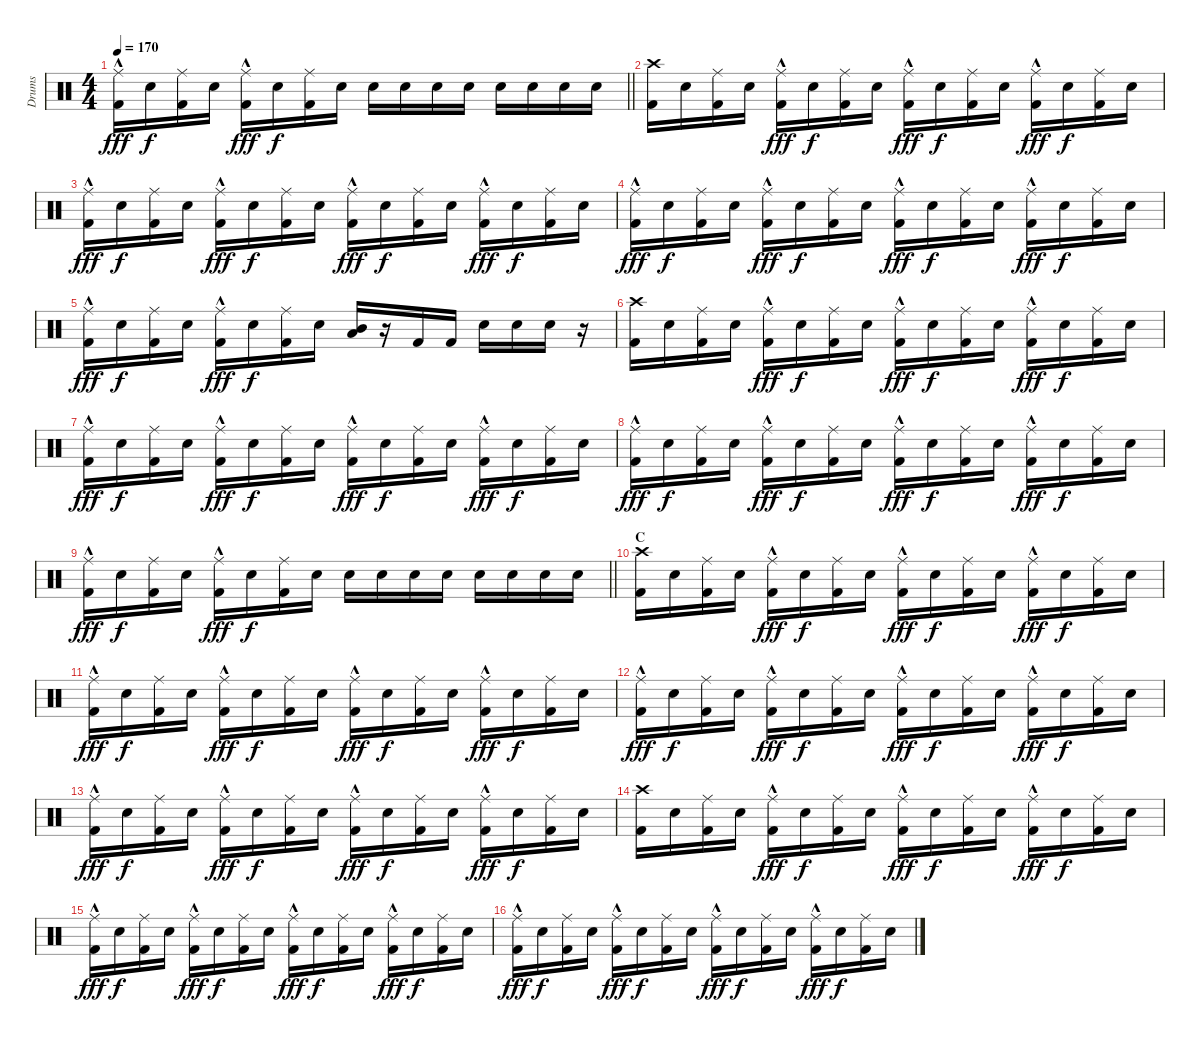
\track ("Drums" "Drums") {instrument percussion}
\staff {score}
\articulation defaults
\ts (4 4)
\tempo 170
\clef neutral
\barLineRight lightlight
\ks c
("Ride (middle)"{hac} "Kick (hit) 2").16{dy fff} "Snare (hit) 2".16{dy f} ("Ride (middle)" "Kick (hit) 2").16 "Snare (hit) 2".16 ("Ride (middle)"{hac} "Kick (hit) 2").16{dy fff} "Snare (hit) 2".16{dy f} ("Ride (middle)" "Kick (hit) 2").16 "Snare (hit) 2".16 "Snare (hit) 2".16 "Snare (hit) 2".16 "Snare (hit) 2".16 "Snare (hit) 2".16 "Snare (hit) 2".16 "Snare (hit) 2".16 "Snare (hit) 2".16 "Snare (hit) 2".16 |
("Crash high (hit)" "Kick (hit) 2").16 "Snare (hit) 2".16 ("Ride (middle)" "Kick (hit) 2").16 "Snare (hit) 2".16 ("Ride (middle)"{hac} "Kick (hit) 2").16{dy fff} "Snare (hit) 2".16{dy f} ("Ride (middle)" "Kick (hit) 2").16 "Snare (hit) 2".16 ("Ride (middle)"{hac} "Kick (hit) 2").16{dy fff} "Snare (hit) 2".16{dy f} ("Ride (middle)" "Kick (hit) 2").16 "Snare (hit) 2".16 ("Ride (middle)"{hac} "Kick (hit) 2").16{dy fff} "Snare (hit) 2".16{dy f} ("Ride (middle)" "Kick (hit) 2").16 "Snare (hit) 2".16 |
("Ride (middle)"{hac} "Kick (hit) 2").16{dy fff} "Snare (hit) 2".16{dy f} ("Ride (middle)" "Kick (hit) 2").16 "Snare (hit) 2".16 ("Ride (middle)"{hac} "Kick (hit) 2").16{dy fff} "Snare (hit) 2".16{dy f} ("Ride (middle)" "Kick (hit) 2").16 "Snare (hit) 2".16 ("Ride (middle)"{hac} "Kick (hit) 2").16{dy fff} "Snare (hit) 2".16{dy f} ("Ride (middle)" "Kick (hit) 2").16 "Snare (hit) 2".16 ("Ride (middle)"{hac} "Kick (hit) 2").16{dy fff} "Snare (hit) 2".16{dy f} ("Ride (middle)" "Kick (hit) 2").16 "Snare (hit) 2".16 |
("Ride (middle)"{hac} "Kick (hit) 2").16{dy fff} "Snare (hit) 2".16{dy f} ("Ride (middle)" "Kick (hit) 2").16 "Snare (hit) 2".16 ("Ride (middle)"{hac} "Kick (hit) 2").16{dy fff} "Snare (hit) 2".16{dy f} ("Ride (middle)" "Kick (hit) 2").16 "Snare (hit) 2".16 ("Ride (middle)"{hac} "Kick (hit) 2").16{dy fff} "Snare (hit) 2".16{dy f} ("Ride (middle)" "Kick (hit) 2").16 "Snare (hit) 2".16 ("Ride (middle)"{hac} "Kick (hit) 2").16{dy fff} "Snare (hit) 2".16{dy f} ("Ride (middle)" "Kick (hit) 2").16 "Snare (hit) 2".16 |
("Ride (middle)"{hac} "Kick (hit) 2").16{dy fff} "Snare (hit) 2".16{dy f} ("Ride (middle)" "Kick (hit) 2").16 "Snare (hit) 2".16 ("Ride (middle)"{hac} "Kick (hit) 2").16{dy fff} "Snare (hit) 2".16{dy f} ("Ride (middle)" "Kick (hit) 2").16 "Snare (hit) 2".16 ("Low Tom (hit)" "Mid Tom (hit)").16 r.16 "Kick (hit) 2".16 "Kick (hit) 2".16 "Snare (hit) 2".16 "Snare (hit) 2".16 "Snare (hit) 2".16 r.16 |
("Crash high (hit)" "Kick (hit) 2").16 "Snare (hit) 2".16 ("Ride (middle)" "Kick (hit) 2").16 "Snare (hit) 2".16 ("Ride (middle)"{hac} "Kick (hit) 2").16{dy fff} "Snare (hit) 2".16{dy f} ("Ride (middle)" "Kick (hit) 2").16 "Snare (hit) 2".16 ("Ride (middle)"{hac} "Kick (hit) 2").16{dy fff} "Snare (hit) 2".16{dy f} ("Ride (middle)" "Kick (hit) 2").16 "Snare (hit) 2".16 ("Ride (middle)"{hac} "Kick (hit) 2").16{dy fff} "Snare (hit) 2".16{dy f} ("Ride (middle)" "Kick (hit) 2").16 "Snare (hit) 2".16 |
("Ride (middle)"{hac} "Kick (hit) 2").16{dy fff} "Snare (hit) 2".16{dy f} ("Ride (middle)" "Kick (hit) 2").16 "Snare (hit) 2".16 ("Ride (middle)"{hac} "Kick (hit) 2").16{dy fff} "Snare (hit) 2".16{dy f} ("Ride (middle)" "Kick (hit) 2").16 "Snare (hit) 2".16 ("Ride (middle)"{hac} "Kick (hit) 2").16{dy fff} "Snare (hit) 2".16{dy f} ("Ride (middle)" "Kick (hit) 2").16 "Snare (hit) 2".16 ("Ride (middle)"{hac} "Kick (hit) 2").16{dy fff} "Snare (hit) 2".16{dy f} ("Ride (middle)" "Kick (hit) 2").16 "Snare (hit) 2".16 |
("Ride (middle)"{hac} "Kick (hit) 2").16{dy fff} "Snare (hit) 2".16{dy f} ("Ride (middle)" "Kick (hit) 2").16 "Snare (hit) 2".16 ("Ride (middle)"{hac} "Kick (hit) 2").16{dy fff} "Snare (hit) 2".16{dy f} ("Ride (middle)" "Kick (hit) 2").16 "Snare (hit) 2".16 ("Ride (middle)"{hac} "Kick (hit) 2").16{dy fff} "Snare (hit) 2".16{dy f} ("Ride (middle)" "Kick (hit) 2").16 "Snare (hit) 2".16 ("Ride (middle)"{hac} "Kick (hit) 2").16{dy fff} "Snare (hit) 2".16{dy f} ("Ride (middle)" "Kick (hit) 2").16 "Snare (hit) 2".16 |
\barLineRight lightlight
("Ride (middle)"{hac} "Kick (hit) 2").16{dy fff} "Snare (hit) 2".16{dy f} ("Ride (middle)" "Kick (hit) 2").16 "Snare (hit) 2".16 ("Ride (middle)"{hac} "Kick (hit) 2").16{dy fff} "Snare (hit) 2".16{dy f} ("Ride (middle)" "Kick (hit) 2").16 "Snare (hit) 2".16 "Snare (hit) 2".16 "Snare (hit) 2".16 "Snare (hit) 2".16 "Snare (hit) 2".16 "Snare (hit) 2".16 "Snare (hit) 2".16 "Snare (hit) 2".16 "Snare (hit) 2".16 |
\section ("" "C")
("Crash high (hit)" "Kick (hit) 2").16 "Snare (hit) 2".16 ("Ride (middle)" "Kick (hit) 2").16 "Snare (hit) 2".16 ("Ride (middle)"{hac} "Kick (hit) 2").16{dy fff} "Snare (hit) 2".16{dy f} ("Ride (middle)" "Kick (hit) 2").16 "Snare (hit) 2".16 ("Ride (middle)"{hac} "Kick (hit) 2").16{dy fff} "Snare (hit) 2".16{dy f} ("Ride (middle)" "Kick (hit) 2").16 "Snare (hit) 2".16 ("Ride (middle)"{hac} "Kick (hit) 2").16{dy fff} "Snare (hit) 2".16{dy f} ("Ride (middle)" "Kick (hit) 2").16 "Snare (hit) 2".16 |
("Ride (middle)"{hac} "Kick (hit) 2").16{dy fff} "Snare (hit) 2".16{dy f} ("Ride (middle)" "Kick (hit) 2").16 "Snare (hit) 2".16 ("Ride (middle)"{hac} "Kick (hit) 2").16{dy fff} "Snare (hit) 2".16{dy f} ("Ride (middle)" "Kick (hit) 2").16 "Snare (hit) 2".16 ("Ride (middle)"{hac} "Kick (hit) 2").16{dy fff} "Snare (hit) 2".16{dy f} ("Ride (middle)" "Kick (hit) 2").16 "Snare (hit) 2".16 ("Ride (middle)"{hac} "Kick (hit) 2").16{dy fff} "Snare (hit) 2".16{dy f} ("Ride (middle)" "Kick (hit) 2").16 "Snare (hit) 2".16 |
("Ride (middle)"{hac} "Kick (hit) 2").16{dy fff} "Snare (hit) 2".16{dy f} ("Ride (middle)" "Kick (hit) 2").16 "Snare (hit) 2".16 ("Ride (middle)"{hac} "Kick (hit) 2").16{dy fff} "Snare (hit) 2".16{dy f} ("Ride (middle)" "Kick (hit) 2").16 "Snare (hit) 2".16 ("Ride (middle)"{hac} "Kick (hit) 2").16{dy fff} "Snare (hit) 2".16{dy f} ("Ride (middle)" "Kick (hit) 2").16 "Snare (hit) 2".16 ("Ride (middle)"{hac} "Kick (hit) 2").16{dy fff} "Snare (hit) 2".16{dy f} ("Ride (middle)" "Kick (hit) 2").16 "Snare (hit) 2".16 |
("Ride (middle)"{hac} "Kick (hit) 2").16{dy fff} "Snare (hit) 2".16{dy f} ("Ride (middle)" "Kick (hit) 2").16 "Snare (hit) 2".16 ("Ride (middle)"{hac} "Kick (hit) 2").16{dy fff} "Snare (hit) 2".16{dy f} ("Ride (middle)" "Kick (hit) 2").16 "Snare (hit) 2".16 ("Ride (middle)"{hac} "Kick (hit) 2").16{dy fff} "Snare (hit) 2".16{dy f} ("Ride (middle)" "Kick (hit) 2").16 "Snare (hit) 2".16 ("Ride (middle)"{hac} "Kick (hit) 2").16{dy fff} "Snare (hit) 2".16{dy f} ("Ride (middle)" "Kick (hit) 2").16 "Snare (hit) 2".16 |
("Crash high (hit)" "Kick (hit) 2").16 "Snare (hit) 2".16 ("Ride (middle)" "Kick (hit) 2").16 "Snare (hit) 2".16 ("Ride (middle)"{hac} "Kick (hit) 2").16{dy fff} "Snare (hit) 2".16{dy f} ("Ride (middle)" "Kick (hit) 2").16 "Snare (hit) 2".16 ("Ride (middle)"{hac} "Kick (hit) 2").16{dy fff} "Snare (hit) 2".16{dy f} ("Ride (middle)" "Kick (hit) 2").16 "Snare (hit) 2".16 ("Ride (middle)"{hac} "Kick (hit) 2").16{dy fff} "Snare (hit) 2".16{dy f} ("Ride (middle)" "Kick (hit) 2").16 "Snare (hit) 2".16 |
("Ride (middle)"{hac} "Kick (hit) 2").16{dy fff} "Snare (hit) 2".16{dy f} ("Ride (middle)" "Kick (hit) 2").16 "Snare (hit) 2".16 ("Ride (middle)"{hac} "Kick (hit) 2").16{dy fff} "Snare (hit) 2".16{dy f} ("Ride (middle)" "Kick (hit) 2").16 "Snare (hit) 2".16 ("Ride (middle)"{hac} "Kick (hit) 2").16{dy fff} "Snare (hit) 2".16{dy f} ("Ride (middle)" "Kick (hit) 2").16 "Snare (hit) 2".16 ("Ride (middle)"{hac} "Kick (hit) 2").16{dy fff} "Snare (hit) 2".16{dy f} ("Ride (middle)" "Kick (hit) 2").16 "Snare (hit) 2".16 |
("Ride (middle)"{hac} "Kick (hit) 2").16{dy fff} "Snare (hit) 2".16{dy f} ("Ride (middle)" "Kick (hit) 2").16 "Snare (hit) 2".16 ("Ride (middle)"{hac} "Kick (hit) 2").16{dy fff} "Snare (hit) 2".16{dy f} ("Ride (middle)" "Kick (hit) 2").16 "Snare (hit) 2".16 ("Ride (middle)"{hac} "Kick (hit) 2").16{dy fff} "Snare (hit) 2".16{dy f} ("Ride (middle)" "Kick (hit) 2").16 "Snare (hit) 2".16 ("Ride (middle)"{hac} "Kick (hit) 2").16{dy fff} "Snare (hit) 2".16{dy f} ("Ride (middle)" "Kick (hit) 2").16 "Snare (hit) 2".16
